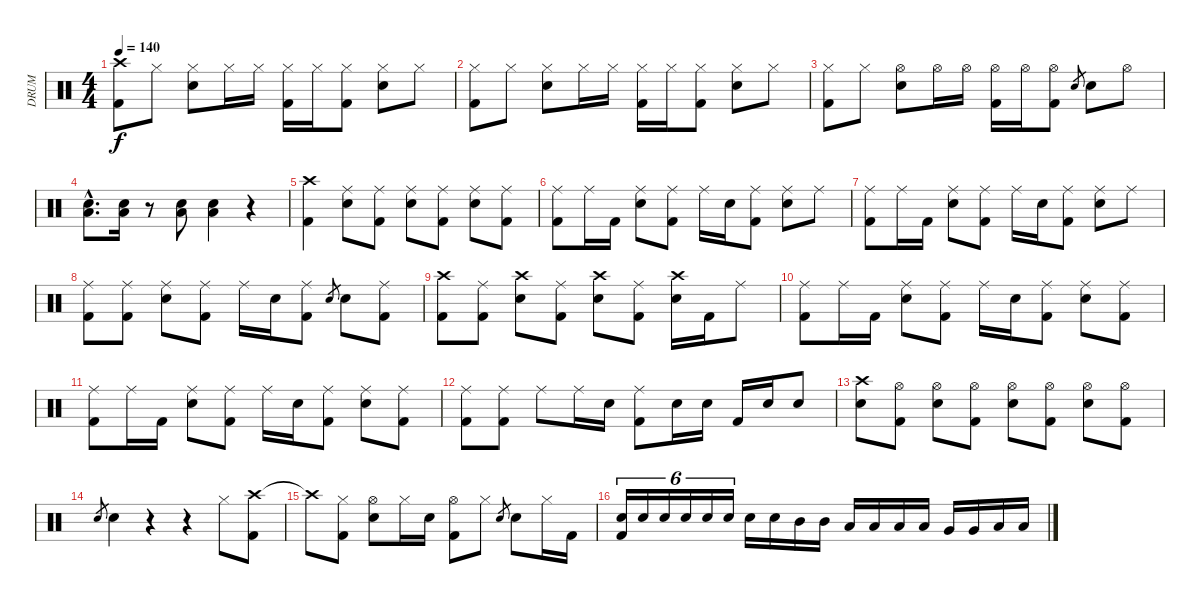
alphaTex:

\track ("DRUM" "DRUM") {instrument percussion}
\staff {score}
\articulation defaults
\ts (4 4)
\tempo 140
\clef neutral
\ks c
("Crash high (hit)" "Kick (hit) 2").8{dy f} "Hi-Hat (closed)".8 ("Hi-Hat (closed)" "Electric Snare (hit)").8 "Hi-Hat (closed)".16 "Hi-Hat (closed)".16 ("Hi-Hat (closed)" "Kick (hit) 2").16 "Hi-Hat (closed)".16 ("Hi-Hat (closed)" "Kick (hit) 2").8 ("Hi-Hat (closed)" "Electric Snare (hit)").8 "Hi-Hat (closed)".8 |
("Hi-Hat (closed)" "Kick (hit) 2").8 "Hi-Hat (closed)".8 ("Hi-Hat (closed)" "Electric Snare (hit)").8 "Hi-Hat (closed)".16 "Hi-Hat (closed)".16 ("Hi-Hat (closed)" "Kick (hit) 2").16 "Hi-Hat (closed)".16 ("Hi-Hat (closed)" "Kick (hit) 2").8 ("Hi-Hat (closed)" "Electric Snare (hit)").8 "Hi-Hat (closed)".8 |
("Hi-Hat (closed)" "Kick (hit) 2").8 "Hi-Hat (closed)".8 ("Hi-Hat (open)" "Electric Snare (hit)").8 "Hi-Hat (open)".16 "Hi-Hat (open)".16 ("Hi-Hat (open)" "Kick (hit) 2").16 "Hi-Hat (open)".16 ("Hi-Hat (open)" "Kick (hit) 2").8 "Electric Snare (hit)".8{gr} "Electric Snare (hit)".8 "Hi-Hat (open)".8 |
("Electric Snare (hit)"{hac} "Low Floor Tom (hit)"{hac}).8{d} ("Electric Snare (hit)" "Low Floor Tom (hit)").16 r.8 ("Electric Snare (hit)" "Low Floor Tom (hit)").8 ("Electric Snare (hit)" "Low Floor Tom (hit)").4 r.4 |
("Crash high (hit)" "Kick (hit) 2").4 ("Ride (middle)" "Electric Snare (hit)").8 ("Ride (middle)" "Kick (hit) 2").8 ("Ride (middle)" "Electric Snare (hit)").8 ("Ride (middle)" "Kick (hit) 2").8 ("Ride (middle)" "Electric Snare (hit)").8 ("Ride (middle)" "Kick (hit) 2").8 |
("Ride (middle)" "Kick (hit) 2").8 "Ride (middle)".16 "Kick (hit) 2".16 ("Ride (middle)" "Electric Snare (hit)").8 ("Ride (middle)" "Kick (hit) 2").8 "Ride (middle)".16 "Electric Snare (hit)".16 ("Ride (middle)" "Kick (hit) 2").8 ("Ride (middle)" "Electric Snare (hit)").8 "Ride (middle)".8 |
("Ride (middle)" "Kick (hit) 2").8 "Ride (middle)".16 "Kick (hit) 2".16 ("Ride (middle)" "Electric Snare (hit)").8 ("Ride (middle)" "Kick (hit) 2").8 "Ride (middle)".16 "Electric Snare (hit)".16 ("Ride (middle)" "Kick (hit) 2").8 ("Ride (middle)" "Electric Snare (hit)").8 "Ride (middle)".8 |
("Ride (middle)" "Kick (hit) 2").8 ("Ride (middle)" "Kick (hit) 2").8 ("Ride (middle)" "Electric Snare (hit)").8 ("Ride (middle)" "Kick (hit) 2").8 "Ride (middle)".16 "Electric Snare (hit)".16 ("Ride (middle)" "Kick (hit) 2").8 "Electric Snare (hit)".8{gr} "Electric Snare (hit)".8 ("Ride (middle)" "Kick (hit) 2").8 |
("Crash high (hit)" "Kick (hit) 2").8 ("Ride (middle)" "Kick (hit) 2").8 ("Crash high (hit)" "Electric Snare (hit)").8 ("Ride (middle)" "Kick (hit) 2").8 ("Crash high (hit)" "Electric Snare (hit)").8 ("Ride (middle)" "Kick (hit) 2").8 ("Crash high (hit)" "Electric Snare (hit)").16 "Kick (hit) 2".16 "Ride (middle)".8 |
("Ride (middle)" "Kick (hit) 2").8 "Ride (middle)".16 "Kick (hit) 2".16 ("Ride (middle)" "Electric Snare (hit)").8 ("Ride (middle)" "Kick (hit) 2").8 "Ride (middle)".16 "Electric Snare (hit)".16 ("Ride (middle)" "Kick (hit) 2").8 ("Ride (middle)" "Electric Snare (hit)").8 ("Ride (middle)" "Kick (hit) 2").8 |
("Ride (middle)" "Kick (hit) 2").8 "Ride (middle)".16 "Kick (hit) 2".16 ("Ride (middle)" "Electric Snare (hit)").8 ("Ride (middle)" "Kick (hit) 2").8 "Ride (middle)".16 "Electric Snare (hit)".16 ("Ride (middle)" "Kick (hit) 2").8 ("Ride (middle)" "Electric Snare (hit)").8 ("Ride (middle)" "Kick (hit) 2").8 |
("Ride (middle)" "Kick (hit) 2").8 ("Ride (middle)" "Kick (hit) 2").8 "Ride (middle)".8 "Ride (middle)".16 "Electric Snare (hit)".16 ("Ride (middle)" "Kick (hit) 2").8 "Electric Snare (hit)".16 "Electric Snare (hit)".16 "Kick (hit) 2".16 "Electric Snare (hit)".16 "Electric Snare (hit)".8 |
("Crash high (hit)" "Electric Snare (hit)").8 ("Hi-Hat (open)" "Kick (hit) 2").8 ("Hi-Hat (open)" "Electric Snare (hit)").8 ("Hi-Hat (open)" "Kick (hit) 2").8 ("Hi-Hat (open)" "Electric Snare (hit)").8 ("Hi-Hat (open)" "Kick (hit) 2").8 ("Hi-Hat (open)" "Electric Snare (hit)").8 ("Hi-Hat (open)" "Kick (hit) 2").8 |
"Electric Snare (hit)".8{gr} "Electric Snare (hit)".4 r.4 r.4 "Hi-Hat (closed)".8 ("Crash high (hit)" "Kick (hit) 2").8 |
"Crash high (hit)"{t}.8 ("Hi-Hat (closed)" "Kick (hit) 2").8 ("Hi-Hat (open)" "Electric Snare (hit)").8 "Hi-Hat (closed)".16 "Electric Snare (hit)".16 ("Hi-Hat (open)" "Kick (hit) 2").8 "Hi-Hat (closed)".8 "Electric Snare (hit)".8{gr} "Electric Snare (hit)".8 "Hi-Hat (closed)".16 "Kick (hit) 2".16 |
("Electric Snare (hit)" "Kick (hit) 2").16{tu (6 4)} "Electric Snare (hit)".16{tu (6 4)} "Electric Snare (hit)".16{tu (6 4)} "Electric Snare (hit)".16{tu (6 4)} "Electric Snare (hit)".16{tu (6 4)} "Electric Snare (hit)".16{tu (6 4)} "Electric Snare (hit)".16 "Electric Snare (hit)".16 "Mid Tom (hit)".16 "Mid Tom (hit)".16 "Low Tom (hit)".16 "Low Tom (hit)".16 "Low Tom (hit)".16 "Low Tom (hit)".16 "Very Low Tom (hit)".16 "Very Low Tom (hit)".16 "Low Floor Tom (hit)".16 "Low Floor Tom (hit)".16
